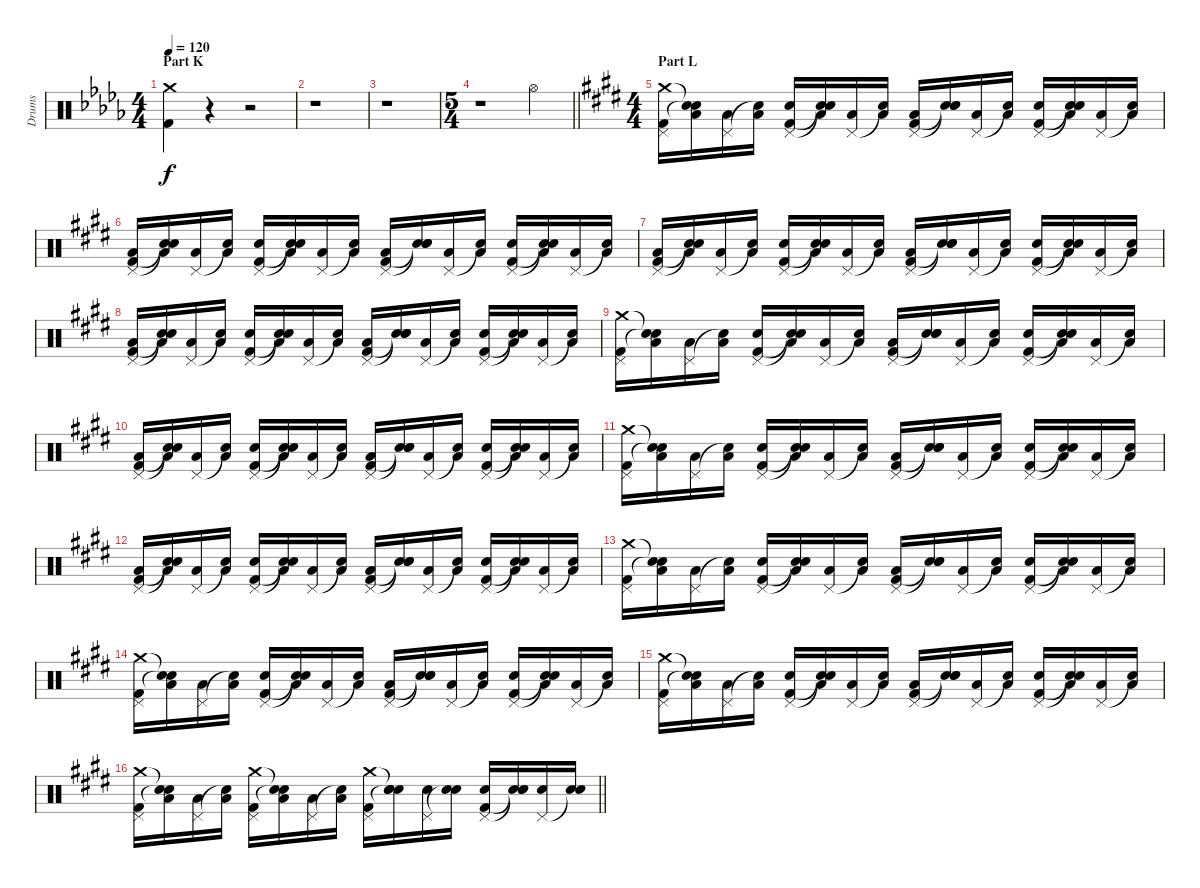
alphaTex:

\track ("Drums" "Drums") {instrument percussion}
\staff {score}
\articulation defaults
\ts (4 4)
\section ("" "Part K")
\tempo 120
\clef neutral
\ks db
("Crash medium (hit)" "Kick (hit) 2").4{dy f} r.4 r.2 |
r.1 |
r.1 |
\ts (5 4)
\barLineRight lightlight
r.1 "Hi-Hat (open)".4 |
\ts (4 4)
\section ("" "Part L")
\ks e
("Crash medium (hit)" "Pedal Hi-Hat (hit)" "Kick (hit) 2").16 ("Snare (hit)"{t} "Low Floor Tom (hit)" "Snare (hit)"{t}).16 ("Pedal Hi-Hat (hit)" "Low Floor Tom (hit)").16 ("Snare (hit)"{t} "Low Floor Tom (hit)").16 ("Pedal Hi-Hat (hit)" "Electric Snare (hit)" "Kick (hit) 2").16 ("Snare (hit)"{t} "Low Floor Tom (hit)" "Snare (hit)"{t}).16 ("Pedal Hi-Hat (hit)" "Low Floor Tom (hit)").16 ("Snare (hit)"{t} "Low Floor Tom (hit)").16 ("Pedal Hi-Hat (hit)" "Low Floor Tom (hit)" "Kick (hit) 2").16 ("Snare (hit)"{t} "Electric Snare (hit)" "Snare (hit)"{t}).16 ("Pedal Hi-Hat (hit)" "Low Floor Tom (hit)").16 ("Snare (hit)"{t} "Low Floor Tom (hit)").16 ("Pedal Hi-Hat (hit)" "Electric Snare (hit)" "Kick (hit) 2").16 ("Snare (hit)"{t} "Low Floor Tom (hit)" "Snare (hit)"{t}).16 ("Pedal Hi-Hat (hit)" "Low Floor Tom (hit)").16 ("Snare (hit)"{t} "Low Floor Tom (hit)").16 |
("Pedal Hi-Hat (hit)" "Low Floor Tom (hit)" "Kick (hit) 2").16 ("Snare (hit)"{t} "Low Floor Tom (hit)" "Snare (hit)"{t}).16 ("Pedal Hi-Hat (hit)" "Low Floor Tom (hit)").16 ("Snare (hit)"{t} "Low Floor Tom (hit)").16 ("Pedal Hi-Hat (hit)" "Electric Snare (hit)" "Kick (hit) 2").16 ("Snare (hit)"{t} "Low Floor Tom (hit)" "Snare (hit)"{t}).16 ("Pedal Hi-Hat (hit)" "Low Floor Tom (hit)").16 ("Snare (hit)"{t} "Low Floor Tom (hit)").16 ("Pedal Hi-Hat (hit)" "Low Floor Tom (hit)" "Kick (hit) 2").16 ("Snare (hit)"{t} "Electric Snare (hit)" "Snare (hit)"{t}).16 ("Pedal Hi-Hat (hit)" "Low Floor Tom (hit)").16 ("Snare (hit)"{t} "Low Floor Tom (hit)").16 ("Pedal Hi-Hat (hit)" "Electric Snare (hit)" "Kick (hit) 2").16 ("Snare (hit)"{t} "Low Floor Tom (hit)" "Snare (hit)"{t}).16 ("Pedal Hi-Hat (hit)" "Low Floor Tom (hit)").16 ("Snare (hit)"{t} "Low Floor Tom (hit)").16 |
("Pedal Hi-Hat (hit)" "Low Floor Tom (hit)" "Kick (hit) 2").16 ("Snare (hit)"{t} "Low Floor Tom (hit)" "Snare (hit)"{t}).16 ("Pedal Hi-Hat (hit)" "Low Floor Tom (hit)").16 ("Snare (hit)"{t} "Low Floor Tom (hit)").16 ("Pedal Hi-Hat (hit)" "Electric Snare (hit)" "Kick (hit) 2").16 ("Snare (hit)"{t} "Low Floor Tom (hit)" "Snare (hit)"{t}).16 ("Pedal Hi-Hat (hit)" "Low Floor Tom (hit)").16 ("Snare (hit)"{t} "Low Floor Tom (hit)").16 ("Pedal Hi-Hat (hit)" "Low Floor Tom (hit)" "Kick (hit) 2").16 ("Snare (hit)"{t} "Electric Snare (hit)" "Snare (hit)"{t}).16 ("Pedal Hi-Hat (hit)" "Low Floor Tom (hit)").16 ("Snare (hit)"{t} "Low Floor Tom (hit)").16 ("Pedal Hi-Hat (hit)" "Electric Snare (hit)" "Kick (hit) 2").16 ("Snare (hit)"{t} "Low Floor Tom (hit)" "Snare (hit)"{t}).16 ("Pedal Hi-Hat (hit)" "Low Floor Tom (hit)").16 ("Snare (hit)"{t} "Low Floor Tom (hit)").16 |
("Pedal Hi-Hat (hit)" "Low Floor Tom (hit)" "Kick (hit) 2").16 ("Snare (hit)"{t} "Low Floor Tom (hit)" "Snare (hit)"{t}).16 ("Pedal Hi-Hat (hit)" "Low Floor Tom (hit)").16 ("Snare (hit)"{t} "Low Floor Tom (hit)").16 ("Pedal Hi-Hat (hit)" "Electric Snare (hit)" "Kick (hit) 2").16 ("Snare (hit)"{t} "Low Floor Tom (hit)" "Snare (hit)"{t}).16 ("Pedal Hi-Hat (hit)" "Low Floor Tom (hit)").16 ("Snare (hit)"{t} "Low Floor Tom (hit)").16 ("Pedal Hi-Hat (hit)" "Low Floor Tom (hit)" "Kick (hit) 2").16 ("Snare (hit)"{t} "Electric Snare (hit)" "Snare (hit)"{t}).16 ("Pedal Hi-Hat (hit)" "Low Floor Tom (hit)").16 ("Snare (hit)"{t} "Low Floor Tom (hit)").16 ("Pedal Hi-Hat (hit)" "Electric Snare (hit)" "Kick (hit) 2").16 ("Snare (hit)"{t} "Low Floor Tom (hit)" "Snare (hit)"{t}).16 ("Pedal Hi-Hat (hit)" "Low Floor Tom (hit)").16 ("Snare (hit)"{t} "Low Floor Tom (hit)").16 |
("Crash medium (hit)" "Pedal Hi-Hat (hit)" "Kick (hit) 2").16 ("Snare (hit)"{t} "Low Floor Tom (hit)" "Snare (hit)"{t}).16 ("Pedal Hi-Hat (hit)" "Low Floor Tom (hit)").16 ("Snare (hit)"{t} "Low Floor Tom (hit)").16 ("Pedal Hi-Hat (hit)" "Electric Snare (hit)" "Kick (hit) 2").16 ("Snare (hit)"{t} "Low Floor Tom (hit)" "Snare (hit)"{t}).16 ("Pedal Hi-Hat (hit)" "Low Floor Tom (hit)").16 ("Snare (hit)"{t} "Low Floor Tom (hit)").16 ("Pedal Hi-Hat (hit)" "Low Floor Tom (hit)" "Kick (hit) 2").16 ("Snare (hit)"{t} "Electric Snare (hit)" "Snare (hit)"{t}).16 ("Pedal Hi-Hat (hit)" "Low Floor Tom (hit)").16 ("Snare (hit)"{t} "Low Floor Tom (hit)").16 ("Pedal Hi-Hat (hit)" "Electric Snare (hit)" "Kick (hit) 2").16 ("Snare (hit)"{t} "Low Floor Tom (hit)" "Snare (hit)"{t}).16 ("Pedal Hi-Hat (hit)" "Low Floor Tom (hit)").16 ("Snare (hit)"{t} "Low Floor Tom (hit)").16 |
("Pedal Hi-Hat (hit)" "Low Floor Tom (hit)" "Kick (hit) 2").16 ("Snare (hit)"{t} "Low Floor Tom (hit)" "Snare (hit)"{t}).16 ("Pedal Hi-Hat (hit)" "Low Floor Tom (hit)").16 ("Snare (hit)"{t} "Low Floor Tom (hit)").16 ("Pedal Hi-Hat (hit)" "Electric Snare (hit)" "Kick (hit) 2").16 ("Snare (hit)"{t} "Low Floor Tom (hit)" "Snare (hit)"{t}).16 ("Pedal Hi-Hat (hit)" "Low Floor Tom (hit)").16 ("Snare (hit)"{t} "Low Floor Tom (hit)").16 ("Pedal Hi-Hat (hit)" "Low Floor Tom (hit)" "Kick (hit) 2").16 ("Snare (hit)"{t} "Electric Snare (hit)" "Snare (hit)"{t}).16 ("Pedal Hi-Hat (hit)" "Low Floor Tom (hit)").16 ("Snare (hit)"{t} "Low Floor Tom (hit)").16 ("Pedal Hi-Hat (hit)" "Electric Snare (hit)" "Kick (hit) 2").16 ("Snare (hit)"{t} "Low Floor Tom (hit)" "Snare (hit)"{t}).16 ("Pedal Hi-Hat (hit)" "Low Floor Tom (hit)").16 ("Snare (hit)"{t} "Low Floor Tom (hit)").16 |
("Crash medium (hit)" "Pedal Hi-Hat (hit)" "Kick (hit) 2").16 ("Snare (hit)"{t} "Low Floor Tom (hit)" "Snare (hit)"{t}).16 ("Pedal Hi-Hat (hit)" "Low Floor Tom (hit)").16 ("Snare (hit)"{t} "Low Floor Tom (hit)").16 ("Pedal Hi-Hat (hit)" "Electric Snare (hit)" "Kick (hit) 2").16 ("Snare (hit)"{t} "Low Floor Tom (hit)" "Snare (hit)"{t}).16 ("Pedal Hi-Hat (hit)" "Low Floor Tom (hit)").16 ("Snare (hit)"{t} "Low Floor Tom (hit)").16 ("Pedal Hi-Hat (hit)" "Low Floor Tom (hit)" "Kick (hit) 2").16 ("Snare (hit)"{t} "Electric Snare (hit)" "Snare (hit)"{t}).16 ("Pedal Hi-Hat (hit)" "Low Floor Tom (hit)").16 ("Snare (hit)"{t} "Low Floor Tom (hit)").16 ("Pedal Hi-Hat (hit)" "Electric Snare (hit)" "Kick (hit) 2").16 ("Snare (hit)"{t} "Low Floor Tom (hit)" "Snare (hit)"{t}).16 ("Pedal Hi-Hat (hit)" "Low Floor Tom (hit)").16 ("Snare (hit)"{t} "Low Floor Tom (hit)").16 |
("Pedal Hi-Hat (hit)" "Low Floor Tom (hit)" "Kick (hit) 2").16 ("Snare (hit)"{t} "Low Floor Tom (hit)" "Snare (hit)"{t}).16 ("Pedal Hi-Hat (hit)" "Low Floor Tom (hit)").16 ("Snare (hit)"{t} "Low Floor Tom (hit)").16 ("Pedal Hi-Hat (hit)" "Electric Snare (hit)" "Kick (hit) 2").16 ("Snare (hit)"{t} "Low Floor Tom (hit)" "Snare (hit)"{t}).16 ("Pedal Hi-Hat (hit)" "Low Floor Tom (hit)").16 ("Snare (hit)"{t} "Low Floor Tom (hit)").16 ("Pedal Hi-Hat (hit)" "Low Floor Tom (hit)" "Kick (hit) 2").16 ("Snare (hit)"{t} "Electric Snare (hit)" "Snare (hit)"{t}).16 ("Pedal Hi-Hat (hit)" "Low Floor Tom (hit)").16 ("Snare (hit)"{t} "Low Floor Tom (hit)").16 ("Pedal Hi-Hat (hit)" "Electric Snare (hit)" "Kick (hit) 2").16 ("Snare (hit)"{t} "Low Floor Tom (hit)" "Snare (hit)"{t}).16 ("Pedal Hi-Hat (hit)" "Low Floor Tom (hit)").16 ("Snare (hit)"{t} "Low Floor Tom (hit)").16 |
("Crash medium (hit)" "Pedal Hi-Hat (hit)" "Kick (hit) 2").16 ("Snare (hit)"{t} "Low Floor Tom (hit)" "Snare (hit)"{t}).16 ("Pedal Hi-Hat (hit)" "Low Floor Tom (hit)").16 ("Snare (hit)"{t} "Low Floor Tom (hit)").16 ("Pedal Hi-Hat (hit)" "Electric Snare (hit)" "Kick (hit) 2").16 ("Snare (hit)"{t} "Low Floor Tom (hit)" "Snare (hit)"{t}).16 ("Pedal Hi-Hat (hit)" "Low Floor Tom (hit)").16 ("Snare (hit)"{t} "Low Floor Tom (hit)").16 ("Pedal Hi-Hat (hit)" "Low Floor Tom (hit)" "Kick (hit) 2").16 ("Snare (hit)"{t} "Electric Snare (hit)" "Snare (hit)"{t}).16 ("Pedal Hi-Hat (hit)" "Low Floor Tom (hit)").16 ("Snare (hit)"{t} "Low Floor Tom (hit)").16 ("Pedal Hi-Hat (hit)" "Electric Snare (hit)" "Kick (hit) 2").16 ("Snare (hit)"{t} "Low Floor Tom (hit)" "Snare (hit)"{t}).16 ("Pedal Hi-Hat (hit)" "Low Floor Tom (hit)").16 ("Snare (hit)"{t} "Low Floor Tom (hit)").16 |
("Crash medium (hit)" "Pedal Hi-Hat (hit)" "Kick (hit) 2").16 ("Snare (hit)"{t} "Low Floor Tom (hit)" "Snare (hit)"{t}).16 ("Pedal Hi-Hat (hit)" "Low Floor Tom (hit)").16 ("Snare (hit)"{t} "Low Floor Tom (hit)").16 ("Pedal Hi-Hat (hit)" "Electric Snare (hit)" "Kick (hit) 2").16 ("Snare (hit)"{t} "Low Floor Tom (hit)" "Snare (hit)"{t}).16 ("Pedal Hi-Hat (hit)" "Low Floor Tom (hit)").16 ("Snare (hit)"{t} "Low Floor Tom (hit)").16 ("Pedal Hi-Hat (hit)" "Low Floor Tom (hit)" "Kick (hit) 2").16 ("Snare (hit)"{t} "Electric Snare (hit)" "Snare (hit)"{t}).16 ("Pedal Hi-Hat (hit)" "Low Floor Tom (hit)").16 ("Snare (hit)"{t} "Low Floor Tom (hit)").16 ("Pedal Hi-Hat (hit)" "Electric Snare (hit)" "Kick (hit) 2").16 ("Snare (hit)"{t} "Low Floor Tom (hit)" "Snare (hit)"{t}).16 ("Pedal Hi-Hat (hit)" "Low Floor Tom (hit)").16 ("Snare (hit)"{t} "Low Floor Tom (hit)").16 |
("Crash medium (hit)" "Pedal Hi-Hat (hit)" "Kick (hit) 2").16 ("Snare (hit)"{t} "Low Floor Tom (hit)" "Snare (hit)"{t}).16 ("Pedal Hi-Hat (hit)" "Low Floor Tom (hit)").16 ("Snare (hit)"{t} "Low Floor Tom (hit)").16 ("Pedal Hi-Hat (hit)" "Electric Snare (hit)" "Kick (hit) 2").16 ("Snare (hit)"{t} "Low Floor Tom (hit)" "Snare (hit)"{t}).16 ("Pedal Hi-Hat (hit)" "Low Floor Tom (hit)").16 ("Snare (hit)"{t} "Low Floor Tom (hit)").16 ("Pedal Hi-Hat (hit)" "Low Floor Tom (hit)" "Kick (hit) 2").16 ("Snare (hit)"{t} "Electric Snare (hit)" "Snare (hit)"{t}).16 ("Pedal Hi-Hat (hit)" "Low Floor Tom (hit)").16 ("Snare (hit)"{t} "Low Floor Tom (hit)").16 ("Pedal Hi-Hat (hit)" "Electric Snare (hit)" "Kick (hit) 2").16 ("Snare (hit)"{t} "Low Floor Tom (hit)" "Snare (hit)"{t}).16 ("Pedal Hi-Hat (hit)" "Low Floor Tom (hit)").16 ("Snare (hit)"{t} "Low Floor Tom (hit)").16 |
\barLineRight lightlight
("Crash medium (hit)" "Pedal Hi-Hat (hit)" "Kick (hit) 2").16 ("Snare (hit)"{t} "Low Floor Tom (hit)" "Snare (hit)"{t}).16 ("Pedal Hi-Hat (hit)" "Low Floor Tom (hit)").16 ("Snare (hit)"{t} "Low Floor Tom (hit)").16 ("Crash medium (hit)" "Pedal Hi-Hat (hit)" "Kick (hit) 2").16 ("Snare (hit)"{t} "Low Floor Tom (hit)" "Snare (hit)"{t}).16 ("Pedal Hi-Hat (hit)" "Low Floor Tom (hit)").16 ("Snare (hit)"{t} "Low Floor Tom (hit)").16 ("Crash medium (hit)" "Pedal Hi-Hat (hit)" "Kick (hit) 2").16 ("Snare (hit)"{t} "Electric Snare (hit)" "Snare (hit)"{t}).16 ("Pedal Hi-Hat (hit)" "Electric Snare (hit)").16 ("Snare (hit)"{t} "Electric Snare (hit)").16 ("Pedal Hi-Hat (hit)" "Electric Snare (hit)" "Kick (hit) 2").16 ("Snare (hit)"{t} "Electric Snare (hit)" "Snare (hit)"{t}).16 ("Pedal Hi-Hat (hit)" "Electric Snare (hit)").16 ("Snare (hit)"{t} "Electric Snare (hit)").16
